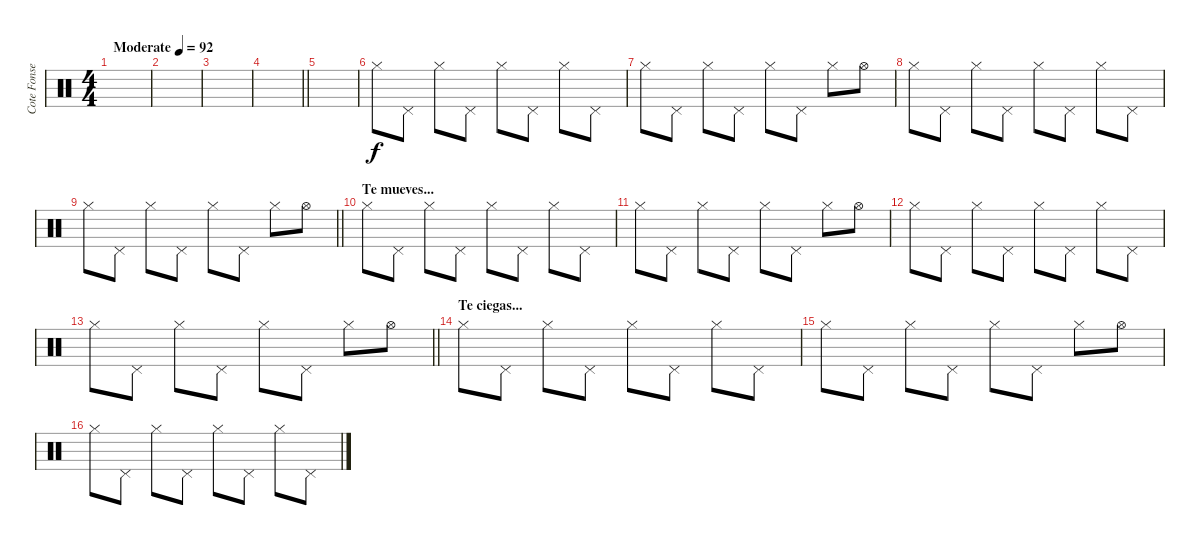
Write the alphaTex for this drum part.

\track ("Cote Fonsea" "Cote Fonse") {instrument percussion}
\staff {score}
\articulation defaults
\ts (4 4)
\tempo (92 "Moderate")
\clef neutral
\ks c
|
|
|
\barLineRight lightlight
|
|
"Hi-Hat (closed)".8 "Pedal Hi-Hat (hit)".8 "Hi-Hat (closed)".8 "Pedal Hi-Hat (hit)".8 "Hi-Hat (closed)".8 "Pedal Hi-Hat (hit)".8 "Hi-Hat (closed)".8 "Pedal Hi-Hat (hit)".8 |
"Hi-Hat (closed)".8 "Pedal Hi-Hat (hit)".8 "Hi-Hat (closed)".8 "Pedal Hi-Hat (hit)".8 "Hi-Hat (closed)".8 "Pedal Hi-Hat (hit)".8 "Hi-Hat (closed)".8 "Hi-Hat (open)".8 |
"Hi-Hat (closed)".8 "Pedal Hi-Hat (hit)".8 "Hi-Hat (closed)".8 "Pedal Hi-Hat (hit)".8 "Hi-Hat (closed)".8 "Pedal Hi-Hat (hit)".8 "Hi-Hat (closed)".8 "Pedal Hi-Hat (hit)".8 |
\barLineRight lightlight "Hi-Hat (closed)".8 "Pedal Hi-Hat (hit)".8 "Hi-Hat (closed)".8 "Pedal Hi-Hat (hit)".8 "Hi-Hat (closed)".8 "Pedal Hi-Hat (hit)".8 "Hi-Hat (closed)".8 "Hi-Hat (open)".8
|
\section ("" "Te mueves...")
"Hi-Hat (closed)".8 "Pedal Hi-Hat (hit)".8 "Hi-Hat (closed)".8 "Pedal Hi-Hat (hit)".8 "Hi-Hat (closed)".8 "Pedal Hi-Hat (hit)".8 "Hi-Hat (closed)".8 "Pedal Hi-Hat (hit)".8 |
"Hi-Hat (closed)".8 "Pedal Hi-Hat (hit)".8 "Hi-Hat (closed)".8 "Pedal Hi-Hat (hit)".8 "Hi-Hat (closed)".8 "Pedal Hi-Hat (hit)".8 "Hi-Hat (closed)".8 "Hi-Hat (open)".8 |
"Hi-Hat (closed)".8 "Pedal Hi-Hat (hit)".8 "Hi-Hat (closed)".8 "Pedal Hi-Hat (hit)".8 "Hi-Hat (closed)".8 "Pedal Hi-Hat (hit)".8 "Hi-Hat (closed)".8 "Pedal Hi-Hat (hit)".8 |
\barLineRight lightlight "Hi-Hat (closed)".8 "Pedal Hi-Hat (hit)".8 "Hi-Hat (closed)".8 "Pedal Hi-Hat (hit)".8 "Hi-Hat (closed)".8 "Pedal Hi-Hat (hit)".8 "Hi-Hat (closed)".8 "Hi-Hat (open)".8
|
\section ("" "Te ciegas...")
"Hi-Hat (closed)".8 "Pedal Hi-Hat (hit)".8 "Hi-Hat (closed)".8 "Pedal Hi-Hat (hit)".8 "Hi-Hat (closed)".8 "Pedal Hi-Hat (hit)".8 "Hi-Hat (closed)".8 "Pedal Hi-Hat (hit)".8 |
"Hi-Hat (closed)".8 "Pedal Hi-Hat (hit)".8 "Hi-Hat (closed)".8 "Pedal Hi-Hat (hit)".8 "Hi-Hat (closed)".8 "Pedal Hi-Hat (hit)".8 "Hi-Hat (closed)".8 "Hi-Hat (open)".8 |
"Hi-Hat (closed)".8 "Pedal Hi-Hat (hit)".8 "Hi-Hat (closed)".8 "Pedal Hi-Hat (hit)".8 "Hi-Hat (closed)".8 "Pedal Hi-Hat (hit)".8 "Hi-Hat (closed)".8 "Pedal Hi-Hat (hit)".8
